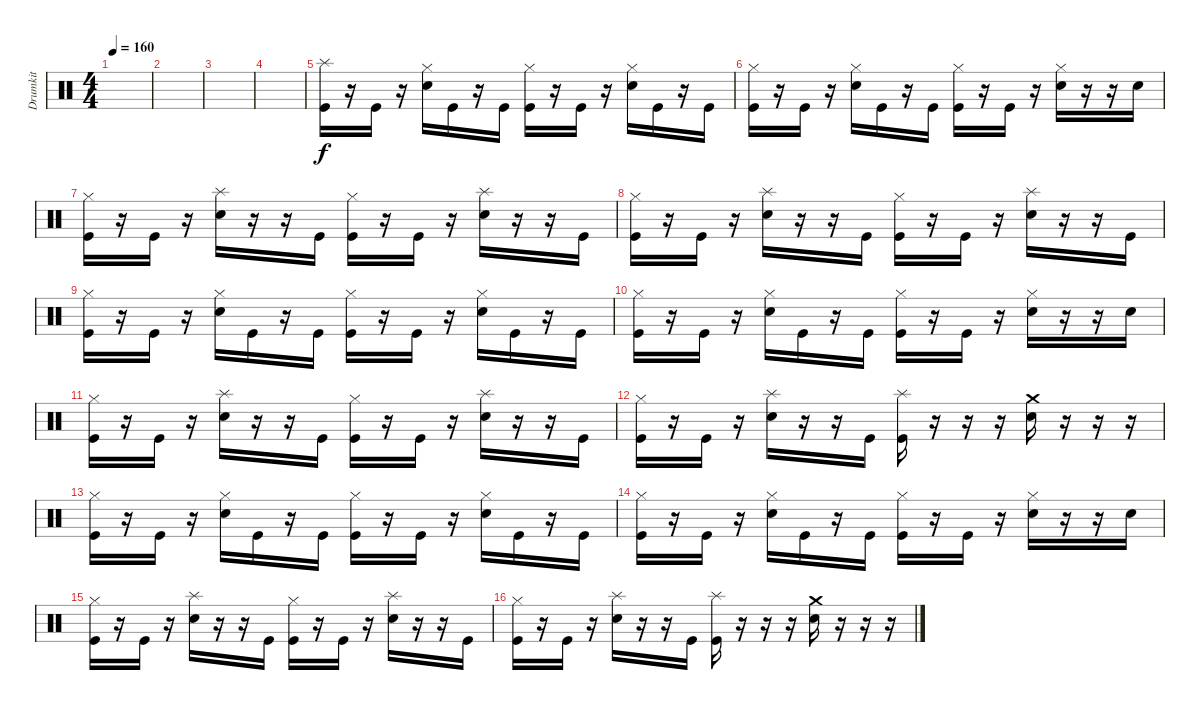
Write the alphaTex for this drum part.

\track ("Drumkit" "Drumkit") {instrument percussion}
\staff {score}
\articulation defaults
\ts (4 4)
\tempo 160
\clef neutral
\ks c
|
|
|
|
("Splash (hit)" "Kick (hit)").16 r.16 "Kick (hit)".16 r.16 ("Hi-Hat (closed)" "Snare (hit) 2").16 "Kick (hit)".16 r.16 "Kick (hit)".16 ("Hi-Hat (closed)" "Kick (hit)").16 r.16 "Kick (hit)".16 r.16 ("Hi-Hat (closed)" "Snare (hit) 2").16 "Kick (hit)".16 r.16 "Kick (hit)".16 |
("Kick (hit)" "Hi-Hat (closed)").16 r.16 "Kick (hit)".16 r.16 ("Hi-Hat (closed)" "Snare (hit) 2").16 "Kick (hit)".16 r.16 "Kick (hit)".16 ("Hi-Hat (closed)" "Kick (hit)").16 r.16 "Kick (hit)".16 r.16 ("Hi-Hat (closed)" "Snare (hit) 2").16 r.16 r.16 "Snare (hit) 2".16 |
("Kick (hit)" "Hi-Hat (closed)").16 r.16 "Kick (hit)".16 r.16 ("Snare (hit) 2" "Splash (hit)").16 r.16 r.16 "Kick (hit)".16 ("Hi-Hat (closed)" "Kick (hit)").16 r.16 "Kick (hit)".16 r.16 ("Snare (hit) 2" "Splash (hit)").16 r.16 r.16 "Kick (hit)".16 |
("Kick (hit)" "Hi-Hat (closed)").16 r.16 "Kick (hit)".16 r.16 ("Snare (hit) 2" "Splash (hit)").16 r.16 r.16 "Kick (hit)".16 ("Hi-Hat (closed)" "Kick (hit)").16 r.16 "Kick (hit)".16 r.16 ("Snare (hit) 2" "Splash (hit)").16 r.16 r.16 "Kick (hit)".16 |
("Kick (hit)" "Hi-Hat (closed)").16 r.16 "Kick (hit)".16 r.16 ("Hi-Hat (closed)" "Snare (hit) 2").16 "Kick (hit)".16 r.16 "Kick (hit)".16 ("Hi-Hat (closed)" "Kick (hit)").16 r.16 "Kick (hit)".16 r.16 ("Hi-Hat (closed)" "Snare (hit) 2").16 "Kick (hit)".16 r.16 "Kick (hit)".16 |
("Kick (hit)" "Hi-Hat (closed)").16 r.16 "Kick (hit)".16 r.16 ("Hi-Hat (closed)" "Snare (hit) 2").16 "Kick (hit)".16 r.16 "Kick (hit)".16 ("Hi-Hat (closed)" "Kick (hit)").16 r.16 "Kick (hit)".16 r.16 ("Hi-Hat (closed)" "Snare (hit) 2").16 r.16 r.16 "Snare (hit) 2".16 |
("Kick (hit)" "Hi-Hat (closed)").16 r.16 "Kick (hit)".16 r.16 ("Snare (hit) 2" "Splash (hit)").16 r.16 r.16 "Kick (hit)".16 ("Hi-Hat (closed)" "Kick (hit)").16 r.16 "Kick (hit)".16 r.16 ("Snare (hit) 2" "Splash (hit)").16 r.16 r.16 "Kick (hit)".16 |
("Kick (hit)" "Hi-Hat (closed)").16 r.16 "Kick (hit)".16 r.16 ("Snare (hit) 2" "Splash (hit)").16 r.16 r.16 "Kick (hit)".16 ("Kick (hit)" "Splash (hit)").16 r.16 r.16 r.16 ("Snare (hit) 2" "Crash medium (hit)").16 r.16 r.16 r.16 |
("Kick (hit)" "Hi-Hat (closed)").16 r.16 "Kick (hit)".16 r.16 ("Hi-Hat (closed)" "Snare (hit) 2").16 "Kick (hit)".16 r.16 "Kick (hit)".16 ("Hi-Hat (closed)" "Kick (hit)").16 r.16 "Kick (hit)".16 r.16 ("Hi-Hat (closed)" "Snare (hit) 2").16 "Kick (hit)".16 r.16 "Kick (hit)".16 |
("Kick (hit)" "Hi-Hat (closed)").16 r.16 "Kick (hit)".16 r.16 ("Hi-Hat (closed)" "Snare (hit) 2").16 "Kick (hit)".16 r.16 "Kick (hit)".16 ("Hi-Hat (closed)" "Kick (hit)").16 r.16 "Kick (hit)".16 r.16 ("Hi-Hat (closed)" "Snare (hit) 2").16 r.16 r.16 "Snare (hit) 2".16 |
("Kick (hit)" "Hi-Hat (closed)").16 r.16 "Kick (hit)".16 r.16 ("Snare (hit) 2" "Splash (hit)").16 r.16 r.16 "Kick (hit)".16 ("Hi-Hat (closed)" "Kick (hit)").16 r.16 "Kick (hit)".16 r.16 ("Snare (hit) 2" "Splash (hit)").16 r.16 r.16 "Kick (hit)".16 |
("Kick (hit)" "Hi-Hat (closed)").16 r.16 "Kick (hit)".16 r.16 ("Snare (hit) 2" "Splash (hit)").16 r.16 r.16 "Kick (hit)".16 ("Kick (hit)" "Splash (hit)").16 r.16 r.16 r.16 ("Snare (hit) 2" "Crash medium (hit)").16 r.16 r.16 r.16
